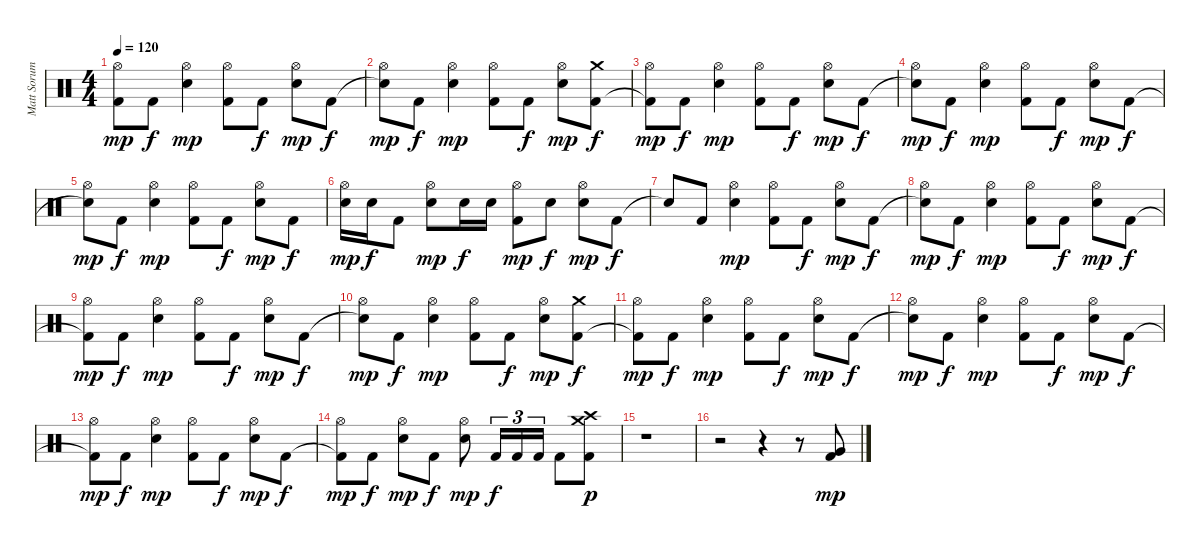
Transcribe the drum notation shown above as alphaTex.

\track ("Matt Sorum" "Matt Sorum") {instrument percussion}
\staff {score}
\articulation defaults
\ts (4 4)
\tempo 120
\clef neutral
\ks c
("Kick (hit) 2"{t} "Hi-Hat (open)").8{dy mp} "Kick (hit) 2".8{dy f} ("Snare (hit) 2" "Hi-Hat (open)").4{dy mp} ("Kick (hit) 2" "Hi-Hat (open)").8 "Kick (hit) 2".8{dy f} ("Snare (hit) 2" "Hi-Hat (open)").8{dy mp} "Kick (hit) 2".8{dy f} |
("Snare (hit)"{t} "Hi-Hat (open)").8{dy mp} "Kick (hit) 2".8{dy f} ("Snare (hit) 2" "Hi-Hat (open)").4{dy mp} ("Kick (hit) 2" "Hi-Hat (open)").8 "Kick (hit) 2".8{dy f} ("Snare (hit) 2" "Hi-Hat (open)").8{dy mp} ("Kick (hit) 2" "Crash medium (hit)").8{dy f} |
("Kick (hit) 2"{t} "Hi-Hat (open)").8{dy mp} "Kick (hit) 2".8{dy f} ("Snare (hit) 2" "Hi-Hat (open)").4{dy mp} ("Kick (hit) 2" "Hi-Hat (open)").8 "Kick (hit) 2".8{dy f} ("Snare (hit) 2" "Hi-Hat (open)").8{dy mp} "Kick (hit) 2".8{dy f} |
("Snare (hit)"{t} "Hi-Hat (open)").8{dy mp} "Kick (hit) 2".8{dy f} ("Snare (hit) 2" "Hi-Hat (open)").4{dy mp} ("Kick (hit) 2" "Hi-Hat (open)").8 "Kick (hit) 2".8{dy f} ("Snare (hit) 2" "Hi-Hat (open)").8{dy mp} "Kick (hit) 2".8{dy f} |
("Snare (hit)"{t} "Hi-Hat (open)").8{dy mp} "Kick (hit) 2".8{dy f} ("Snare (hit) 2" "Hi-Hat (open)").4{dy mp} ("Kick (hit) 2" "Hi-Hat (open)").8 "Kick (hit) 2".8{dy f} ("Snare (hit) 2" "Hi-Hat (open)").8{dy mp} "Kick (hit) 2".8{dy f} |
("Snare (hit) 2" "Hi-Hat (open)").16{dy mp} "Snare (hit) 2".16{dy f} "Kick (hit) 2".8 ("Snare (hit) 2" "Hi-Hat (open)").8{dy mp} "Snare (hit) 2".16{dy f} "Snare (hit) 2".16 ("Kick (hit) 2" "Hi-Hat (open)").8{dy mp} "Snare (hit) 2".8{dy f} ("Snare (hit) 2" "Hi-Hat (open)").8{dy mp} "Kick (hit) 2".8{dy f} |
"Snare (hit)"{t}.8 "Kick (hit) 2".8 ("Snare (hit) 2" "Hi-Hat (open)").4{dy mp} ("Kick (hit) 2" "Hi-Hat (open)").8 "Kick (hit) 2".8{dy f} ("Snare (hit) 2" "Hi-Hat (open)").8{dy mp} "Kick (hit) 2".8{dy f} |
("Snare (hit)"{t} "Hi-Hat (open)").8{dy mp} "Kick (hit) 2".8{dy f} ("Snare (hit) 2" "Hi-Hat (open)").4{dy mp} ("Kick (hit) 2" "Hi-Hat (open)").8 "Kick (hit) 2".8{dy f} ("Snare (hit) 2" "Hi-Hat (open)").8{dy mp} "Kick (hit) 2".8{dy f} |
("Kick (hit) 2"{t} "Hi-Hat (open)").8{dy mp} "Kick (hit) 2".8{dy f} ("Snare (hit) 2" "Hi-Hat (open)").4{dy mp} ("Kick (hit) 2" "Hi-Hat (open)").8 "Kick (hit) 2".8{dy f} ("Snare (hit) 2" "Hi-Hat (open)").8{dy mp} "Kick (hit) 2".8{dy f} |
("Snare (hit)"{t} "Hi-Hat (open)").8{dy mp} "Kick (hit) 2".8{dy f} ("Snare (hit) 2" "Hi-Hat (open)").4{dy mp} ("Kick (hit) 2" "Hi-Hat (open)").8 "Kick (hit) 2".8{dy f} ("Snare (hit) 2" "Hi-Hat (open)").8{dy mp} ("Kick (hit) 2" "Crash medium (hit)").8{dy f} |
("Kick (hit) 2"{t} "Hi-Hat (open)").8{dy mp} "Kick (hit) 2".8{dy f} ("Snare (hit) 2" "Hi-Hat (open)").4{dy mp} ("Kick (hit) 2" "Hi-Hat (open)").8 "Kick (hit) 2".8{dy f} ("Snare (hit) 2" "Hi-Hat (open)").8{dy mp} "Kick (hit) 2".8{dy f} |
("Snare (hit)"{t} "Hi-Hat (open)").8{dy mp} "Kick (hit) 2".8{dy f} ("Snare (hit) 2" "Hi-Hat (open)").4{dy mp} ("Kick (hit) 2" "Hi-Hat (open)").8 "Kick (hit) 2".8{dy f} ("Snare (hit) 2" "Hi-Hat (open)").8{dy mp} "Kick (hit) 2".8{dy f} |
("Kick (hit) 2"{t} "Hi-Hat (open)").8{dy mp} "Kick (hit) 2".8{dy f} ("Snare (hit) 2" "Hi-Hat (open)").4{dy mp} ("Kick (hit) 2" "Hi-Hat (open)").8 "Kick (hit) 2".8{dy f} ("Snare (hit) 2" "Hi-Hat (open)").8{dy mp} "Kick (hit) 2".8{dy f} |
("Kick (hit) 2"{t} "Hi-Hat (open)").8{dy mp} "Kick (hit) 2".8{dy f} ("Snare (hit) 2" "Hi-Hat (open)").8{dy mp} "Kick (hit) 2".8{dy f} ("Snare (hit) 2" "Hi-Hat (open)").8{dy mp} "Kick (hit) 2".16{tu (3 2) dy f} "Kick (hit) 2".16{tu (3 2)} "Kick (hit) 2".16{tu (3 2)} "Kick (hit) 2".8 ("Kick (hit) 2" "Crash medium (hit)" "Crash high (hit)").8{dy p} |
r.1 |
r.2 r.4 r.8 ("Kick (hit) 2" "Very Low Tom (hit)").8{dy mp}
